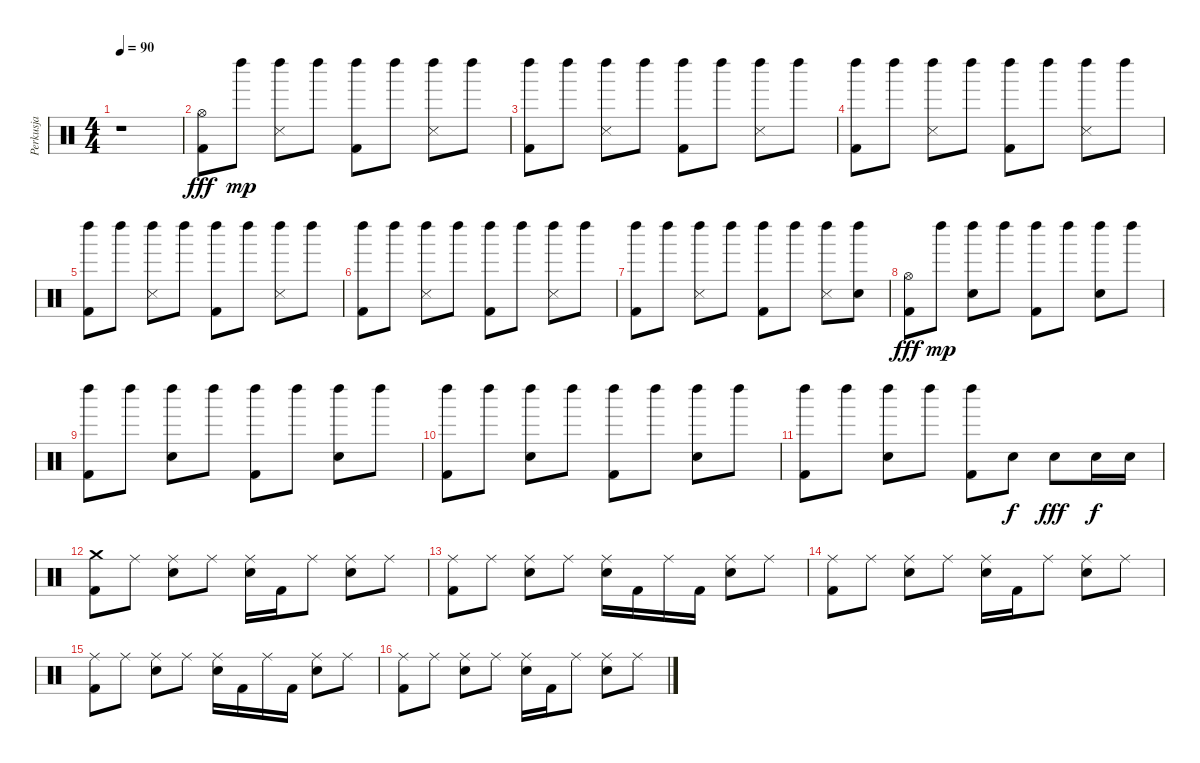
\track ("Perkusja" "Perkusja") {instrument percussion}
\staff {score}
\articulation defaults
\ts (4 4)
\tempo 90
\clef neutral
\ks c
r.1{dy fff} |
("Kick (hit) 2" "Hi-Hat (open)").8 "Left Maraca (hit)".8{dy mp} ("Snare (side stick) 3" "Left Maraca (hit)").8 "Left Maraca (hit)".8 ("Kick (hit) 2" "Left Maraca (hit)").8 "Left Maraca (hit)".8 ("Snare (side stick) 3" "Left Maraca (hit)").8 "Left Maraca (hit)".8 |
("Kick (hit) 2" "Left Maraca (hit)").8 "Left Maraca (hit)".8 ("Snare (side stick) 3" "Left Maraca (hit)").8 "Left Maraca (hit)".8 ("Kick (hit) 2" "Left Maraca (hit)").8 "Left Maraca (hit)".8 ("Snare (side stick) 3" "Left Maraca (hit)").8 "Left Maraca (hit)".8 |
("Kick (hit) 2" "Left Maraca (hit)").8 "Left Maraca (hit)".8 ("Snare (side stick) 3" "Left Maraca (hit)").8 "Left Maraca (hit)".8 ("Kick (hit) 2" "Left Maraca (hit)").8 "Left Maraca (hit)".8 ("Snare (side stick) 3" "Left Maraca (hit)").8 "Left Maraca (hit)".8 |
("Kick (hit) 2" "Left Maraca (hit)").8 "Left Maraca (hit)".8 ("Snare (side stick) 3" "Left Maraca (hit)").8 "Left Maraca (hit)".8 ("Kick (hit) 2" "Left Maraca (hit)").8 "Left Maraca (hit)".8 ("Snare (side stick) 3" "Left Maraca (hit)").8 "Left Maraca (hit)".8 |
("Kick (hit) 2" "Left Maraca (hit)").8 "Left Maraca (hit)".8 ("Snare (side stick) 3" "Left Maraca (hit)").8 "Left Maraca (hit)".8 ("Kick (hit) 2" "Left Maraca (hit)").8 "Left Maraca (hit)".8 ("Snare (side stick) 3" "Left Maraca (hit)").8 "Left Maraca (hit)".8 |
("Kick (hit) 2" "Left Maraca (hit)").8 "Left Maraca (hit)".8 ("Snare (side stick) 3" "Left Maraca (hit)").8 "Left Maraca (hit)".8 ("Kick (hit) 2" "Left Maraca (hit)").8 "Left Maraca (hit)".8 ("Snare (side stick) 3" "Left Maraca (hit)").8 ("Electric Snare (hit)" "Left Maraca (hit)").8 |
("Kick (hit) 2" "Hi-Hat (open)").8{dy fff} "Left Maraca (hit)".8{dy mp} ("Electric Snare (hit)" "Left Maraca (hit)").8 "Left Maraca (hit)".8 ("Kick (hit) 2" "Left Maraca (hit)").8 "Left Maraca (hit)".8 ("Electric Snare (hit)" "Left Maraca (hit)").8 "Left Maraca (hit)".8 |
("Kick (hit) 2" "Left Maraca (hit)").8 "Left Maraca (hit)".8 ("Electric Snare (hit)" "Left Maraca (hit)").8 "Left Maraca (hit)".8 ("Kick (hit) 2" "Left Maraca (hit)").8 "Left Maraca (hit)".8 ("Electric Snare (hit)" "Left Maraca (hit)").8 "Left Maraca (hit)".8 |
("Kick (hit) 2" "Left Maraca (hit)").8 "Left Maraca (hit)".8 ("Electric Snare (hit)" "Left Maraca (hit)").8 "Left Maraca (hit)".8 ("Kick (hit) 2" "Left Maraca (hit)").8 "Left Maraca (hit)".8 ("Electric Snare (hit)" "Left Maraca (hit)").8 "Left Maraca (hit)".8 |
("Kick (hit) 2" "Left Maraca (hit)").8 "Left Maraca (hit)".8 ("Electric Snare (hit)" "Left Maraca (hit)").8 "Left Maraca (hit)".8 ("Kick (hit) 2" "Left Maraca (hit)").8 "Electric Snare (hit)".8{dy f} "Electric Snare (hit)".8{dy fff} "Electric Snare (hit)".16{dy f} "Electric Snare (hit)".16 |
("Kick (hit) 2" "Crash medium (hit)").8 "Ride (middle)".8 ("Electric Snare (hit)" "Ride (middle)").8 "Ride (middle)".8 ("Electric Snare (hit)" "Ride (middle)").16 "Kick (hit) 2".16 "Ride (middle)".8 ("Electric Snare (hit)" "Ride (middle)").8 "Ride (middle)".8 |
("Kick (hit) 2" "Ride (middle)").8 "Ride (middle)".8 ("Electric Snare (hit)" "Ride (middle)").8 "Ride (middle)".8 ("Electric Snare (hit)" "Ride (middle)").16 "Kick (hit) 2".16 "Ride (middle)".16 "Kick (hit) 2".16 ("Electric Snare (hit)" "Ride (middle)").8 "Ride (middle)".8 |
("Kick (hit) 2" "Ride (middle)").8 "Ride (middle)".8 ("Electric Snare (hit)" "Ride (middle)").8 "Ride (middle)".8 ("Electric Snare (hit)" "Ride (middle)").16 "Kick (hit) 2".16 "Ride (middle)".8 ("Electric Snare (hit)" "Ride (middle)").8 "Ride (middle)".8 |
("Kick (hit) 2" "Ride (middle)").8 "Ride (middle)".8 ("Electric Snare (hit)" "Ride (middle)").8 "Ride (middle)".8 ("Electric Snare (hit)" "Ride (middle)").16 "Kick (hit) 2".16 "Ride (middle)".16 "Kick (hit) 2".16 ("Electric Snare (hit)" "Ride (middle)").8 "Ride (middle)".8 |
("Kick (hit) 2" "Ride (middle)").8 "Ride (middle)".8 ("Electric Snare (hit)" "Ride (middle)").8 "Ride (middle)".8 ("Electric Snare (hit)" "Ride (middle)").16 "Kick (hit) 2".16 "Ride (middle)".8 ("Electric Snare (hit)" "Ride (middle)").8 "Ride (middle)".8
